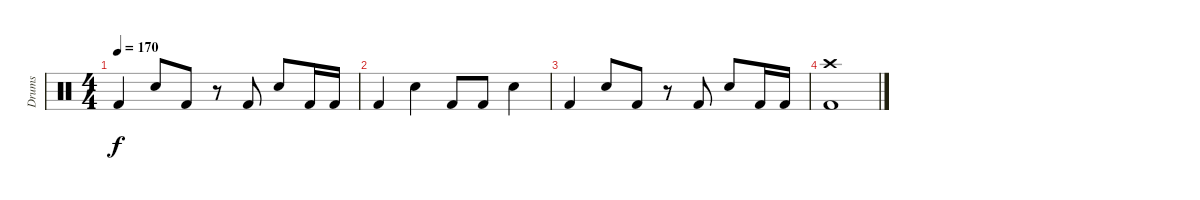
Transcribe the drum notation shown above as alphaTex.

\track ("Drums" "Drums") {instrument percussion}
\staff {score}
\articulation defaults
\ts (4 4)
\tempo 170
\clef neutral
\ks c "Kick (hit) 2".4{dy f} "Electric Snare (hit)".8 "Kick (hit) 2".8
r.8 "Kick (hit) 2".8 "Electric Snare (hit)".8 "Kick (hit) 2".16 "Kick (hit) 2".16 |
"Kick (hit) 2".4 "Electric Snare (hit)".4 "Kick (hit) 2".8 "Kick (hit) 2".8 "Electric Snare (hit)".4 |
"Kick (hit) 2".4 "Electric Snare (hit)".8 "Kick (hit) 2".8 r.8 "Kick (hit) 2".8 "Electric Snare (hit)".8 "Kick (hit) 2".16 "Kick (hit) 2".16 |
("Crash high (hit)" "Kick (hit) 2").1
